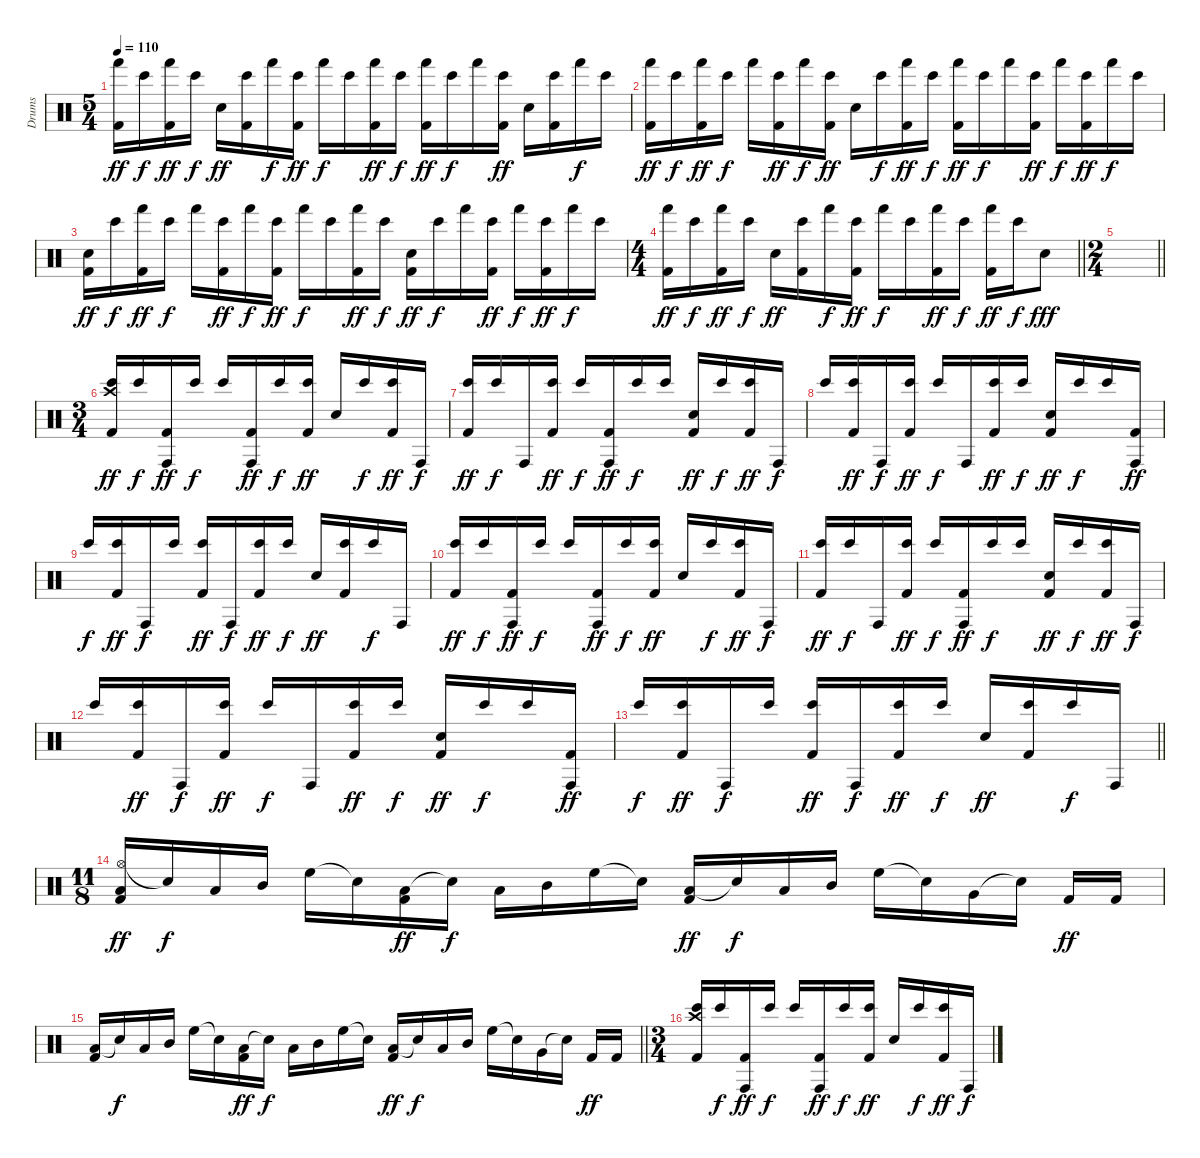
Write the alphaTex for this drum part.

\track ("Drums" "Drums") {instrument percussion}
\staff {score}
\articulation defaults
\ts (5 4)
\tempo 110
\clef neutral
\ks c
("Hand (hit)" "Kick (hit) 2").16{dy ff} "Bongo High (hit)".16{dy f} ("Hand (hit)" "Kick (hit) 2").16{dy ff} "Bongo High (hit)".16{dy f} "Snare (hit) 2".16{dy ff} ("Bongo High (hit)" "Kick (hit) 2").16 "Hand (hit)".16{dy f} ("Bongo High (hit)" "Kick (hit) 2").16{dy ff} "Hand (hit)".16{dy f} "Bongo High (hit)".16 ("Hand (hit)" "Kick (hit) 2").16{dy ff} "Bongo High (hit)".16{dy f} ("Hand (hit)" "Kick (hit) 2").16{dy ff} "Bongo High (hit)".16{dy f} "Hand (hit)".16 ("Bongo High (hit)" "Kick (hit) 2").16{dy ff} "Snare (hit) 2".16 ("Bongo High (hit)" "Kick (hit) 2").16 "Hand (hit)".16{dy f} "Bongo High (hit)".16 |
("Hand (hit)" "Kick (hit) 2").16{dy ff} "Bongo High (hit)".16{dy f} ("Hand (hit)" "Kick (hit) 2").16{dy ff} "Bongo High (hit)".16{dy f} "Hand (hit)".16 ("Bongo High (hit)" "Kick (hit) 2").16{dy ff} "Hand (hit)".16{dy f} ("Bongo High (hit)" "Kick (hit) 2").16{dy ff} "Snare (hit) 2".16 "Bongo High (hit)".16{dy f} ("Hand (hit)" "Kick (hit) 2").16{dy ff} "Bongo High (hit)".16{dy f} ("Hand (hit)" "Kick (hit) 2").16{dy ff} "Bongo High (hit)".16{dy f} "Hand (hit)".16 ("Bongo High (hit)" "Kick (hit) 2").16{dy ff} "Hand (hit)".16{dy f} ("Bongo High (hit)" "Kick (hit) 2").16{dy ff} "Hand (hit)".16{dy f} "Bongo High (hit)".16 |
("Snare (hit) 2" "Kick (hit) 2").16{dy ff} "Bongo High (hit)".16{dy f} ("Hand (hit)" "Kick (hit) 2").16{dy ff} "Bongo High (hit)".16{dy f} "Hand (hit)".16 ("Bongo High (hit)" "Kick (hit) 2").16{dy ff} "Hand (hit)".16{dy f} ("Bongo High (hit)" "Kick (hit) 2").16{dy ff} "Hand (hit)".16{dy f} "Bongo High (hit)".16 ("Hand (hit)" "Kick (hit) 2").16{dy ff} "Bongo High (hit)".16{dy f} ("Snare (hit) 2" "Kick (hit) 2").16{dy ff} "Bongo High (hit)".16{dy f} "Hand (hit)".16 ("Bongo High (hit)" "Kick (hit) 2").16{dy ff} "Hand (hit)".16{dy f} ("Bongo High (hit)" "Kick (hit) 2").16{dy ff} "Hand (hit)".16{dy f} "Bongo High (hit)".16 |
\ts (4 4)
\barLineRight lightlight
("Hand (hit)" "Kick (hit) 2").16{dy ff} "Bongo High (hit)".16{dy f} ("Hand (hit)" "Kick (hit) 2").16{dy ff} "Bongo High (hit)".16{dy f} "Snare (hit) 2".16{dy ff} ("Bongo High (hit)" "Kick (hit) 2").16 "Hand (hit)".16{dy f} ("Bongo High (hit)" "Kick (hit) 2").16{dy ff} "Hand (hit)".16{dy f} "Bongo High (hit)".16 ("Hand (hit)" "Kick (hit) 2").16{dy ff} "Bongo High (hit)".16{dy f} ("Hand (hit)" "Kick (hit) 2").16{dy ff} "Bongo High (hit)".16{dy f} "Snare (hit) 2".8{dy fff} |
\ts (2 4)
\barLineRight lightlight
|
\ts (3 4)
\section ("" "")
("Crash high (hit)" "Bongo High (hit)" "Kick (hit) 2").16{dy ff} "Bongo High (hit)".16{dy f} ("Conga high (hit)" "Kick (hit) 2").16{dy ff} "Bongo High (hit)".16{dy f} "Bongo High (hit)".16 ("Conga high (hit)" "Kick (hit) 2").16{dy ff} "Bongo High (hit)".16{dy f} ("Bongo High (hit)" "Kick (hit) 2").16{dy ff} "Snare (hit) 2".16 "Bongo High (hit)".16{dy f} ("Bongo High (hit)" "Kick (hit) 2").16{dy ff} "Conga high (hit)".16{dy f} |
("Bongo High (hit)" "Kick (hit) 2").16{dy ff} "Bongo High (hit)".16{dy f} "Conga high (hit)".16 ("Bongo High (hit)" "Kick (hit) 2").16{dy ff} "Bongo High (hit)".16{dy f} ("Conga high (hit)" "Kick (hit) 2").16{dy ff} "Bongo High (hit)".16{dy f} "Bongo High (hit)".16 ("Snare (hit) 2" "Kick (hit) 2").16{dy ff} "Bongo High (hit)".16{dy f} ("Bongo High (hit)" "Kick (hit) 2").16{dy ff} "Conga high (hit)".16{dy f} |
"Bongo High (hit)".16 ("Bongo High (hit)" "Kick (hit) 2").16{dy ff} "Conga high (hit)".16{dy f} ("Bongo High (hit)" "Kick (hit) 2").16{dy ff} "Bongo High (hit)".16{dy f} "Conga high (hit)".16 ("Bongo High (hit)" "Kick (hit) 2").16{dy ff} "Bongo High (hit)".16{dy f} ("Snare (hit) 2" "Kick (hit) 2").16{dy ff} "Bongo High (hit)".16{dy f} "Bongo High (hit)".16 ("Conga high (hit)" "Kick (hit) 2").16{dy ff} |
"Bongo High (hit)".16{dy f} ("Bongo High (hit)" "Kick (hit) 2").16{dy ff} "Conga high (hit)".16{dy f} "Bongo High (hit)".16 ("Bongo High (hit)" "Kick (hit) 2").16{dy ff} "Conga high (hit)".16{dy f} ("Bongo High (hit)" "Kick (hit) 2").16{dy ff} "Bongo High (hit)".16{dy f} "Snare (hit) 2".16{dy ff} ("Bongo High (hit)" "Kick (hit) 2").16 "Bongo High (hit)".16{dy f} "Conga high (hit)".16 |
("Bongo High (hit)" "Kick (hit) 2").16{dy ff} "Bongo High (hit)".16{dy f} ("Conga high (hit)" "Kick (hit) 2").16{dy ff} "Bongo High (hit)".16{dy f} "Bongo High (hit)".16 ("Conga high (hit)" "Kick (hit) 2").16{dy ff} "Bongo High (hit)".16{dy f} ("Bongo High (hit)" "Kick (hit) 2").16{dy ff} "Snare (hit) 2".16 "Bongo High (hit)".16{dy f} ("Bongo High (hit)" "Kick (hit) 2").16{dy ff} "Conga high (hit)".16{dy f} |
("Bongo High (hit)" "Kick (hit) 2").16{dy ff} "Bongo High (hit)".16{dy f} "Conga high (hit)".16 ("Bongo High (hit)" "Kick (hit) 2").16{dy ff} "Bongo High (hit)".16{dy f} ("Conga high (hit)" "Kick (hit) 2").16{dy ff} "Bongo High (hit)".16{dy f} "Bongo High (hit)".16 ("Snare (hit) 2" "Kick (hit) 2").16{dy ff} "Bongo High (hit)".16{dy f} ("Bongo High (hit)" "Kick (hit) 2").16{dy ff} "Conga high (hit)".16{dy f} |
"Bongo High (hit)".16 ("Bongo High (hit)" "Kick (hit) 2").16{dy ff} "Conga high (hit)".16{dy f} ("Bongo High (hit)" "Kick (hit) 2").16{dy ff} "Bongo High (hit)".16{dy f} "Conga high (hit)".16 ("Bongo High (hit)" "Kick (hit) 2").16{dy ff} "Bongo High (hit)".16{dy f} ("Snare (hit) 2" "Kick (hit) 2").16{dy ff} "Bongo High (hit)".16{dy f} "Bongo High (hit)".16 ("Conga high (hit)" "Kick (hit) 2").16{dy ff} |
\barLineRight lightlight "Bongo High (hit)".16{dy f}
("Bongo High (hit)" "Kick (hit) 2").16{dy ff} "Conga high (hit)".16{dy f} "Bongo High (hit)".16 ("Bongo High (hit)" "Kick (hit) 2").16{dy ff} "Conga high (hit)".16{dy f} ("Bongo High (hit)" "Kick (hit) 2").16{dy ff} "Bongo High (hit)".16{dy f} "Snare (hit) 2".16{dy ff} ("Bongo High (hit)" "Kick (hit) 2").16 "Bongo High (hit)".16{dy f} "Conga high (hit)".16 |
\ts (11 8)
\section ("" "")
("Hi-Hat (open)" "Low Tom (hit)" "Kick (hit) 2").16{dy ff} "Snare (hit)"{t}.16{dy f} "Low Tom (hit)".16 "Mid Tom (hit)".16 "High Floor Tom (hit)".16 "Snare (hit)"{t}.16 ("Low Tom (hit)" "Kick (hit) 2").16{dy ff} "Snare (hit)"{t}.16{dy f} "Low Tom (hit)".16 "Mid Tom (hit)".16 "High Floor Tom (hit)".16 "Snare (hit)"{t}.16 ("Low Tom (hit)" "Kick (hit) 2").16{dy ff} "Snare (hit)"{t}.16{dy f} "Low Tom (hit)".16 "Mid Tom (hit)".16 "High Floor Tom (hit)".16 "Snare (hit)"{t}.16 "Very Low Tom (hit)".16 "Snare (hit)"{t}.16 "Kick (hit) 2".16{dy ff} "Kick (hit) 2".16 |
\barLineRight lightlight
("Low Tom (hit)" "Kick (hit) 2").16 "Snare (hit)"{t}.16{dy f} "Low Tom (hit)".16 "Mid Tom (hit)".16 "High Floor Tom (hit)".16 "Snare (hit)"{t}.16 ("Low Tom (hit)" "Kick (hit) 2").16{dy ff} "Snare (hit)"{t}.16{dy f} "Low Tom (hit)".16 "Mid Tom (hit)".16 "High Floor Tom (hit)".16 "Snare (hit)"{t}.16 ("Low Tom (hit)" "Kick (hit) 2").16{dy ff} "Snare (hit)"{t}.16{dy f} "Low Tom (hit)".16 "Mid Tom (hit)".16 "High Floor Tom (hit)".16 "Snare (hit)"{t}.16 "Very Low Tom (hit)".16 "Snare (hit)"{t}.16 "Kick (hit) 2".16{dy ff} "Kick (hit) 2".16 |
\ts (3 4)
\section ("" "")
("Crash high (hit)" "Bongo High (hit)" "Kick (hit) 2").16 "Bongo High (hit)".16{dy f} ("Conga high (hit)" "Kick (hit) 2").16{dy ff} "Bongo High (hit)".16{dy f} "Bongo High (hit)".16 ("Conga high (hit)" "Kick (hit) 2").16{dy ff} "Bongo High (hit)".16{dy f} ("Bongo High (hit)" "Kick (hit) 2").16{dy ff} "Snare (hit) 2".16 "Bongo High (hit)".16{dy f} ("Bongo High (hit)" "Kick (hit) 2").16{dy ff} "Conga high (hit)".16{dy f}
